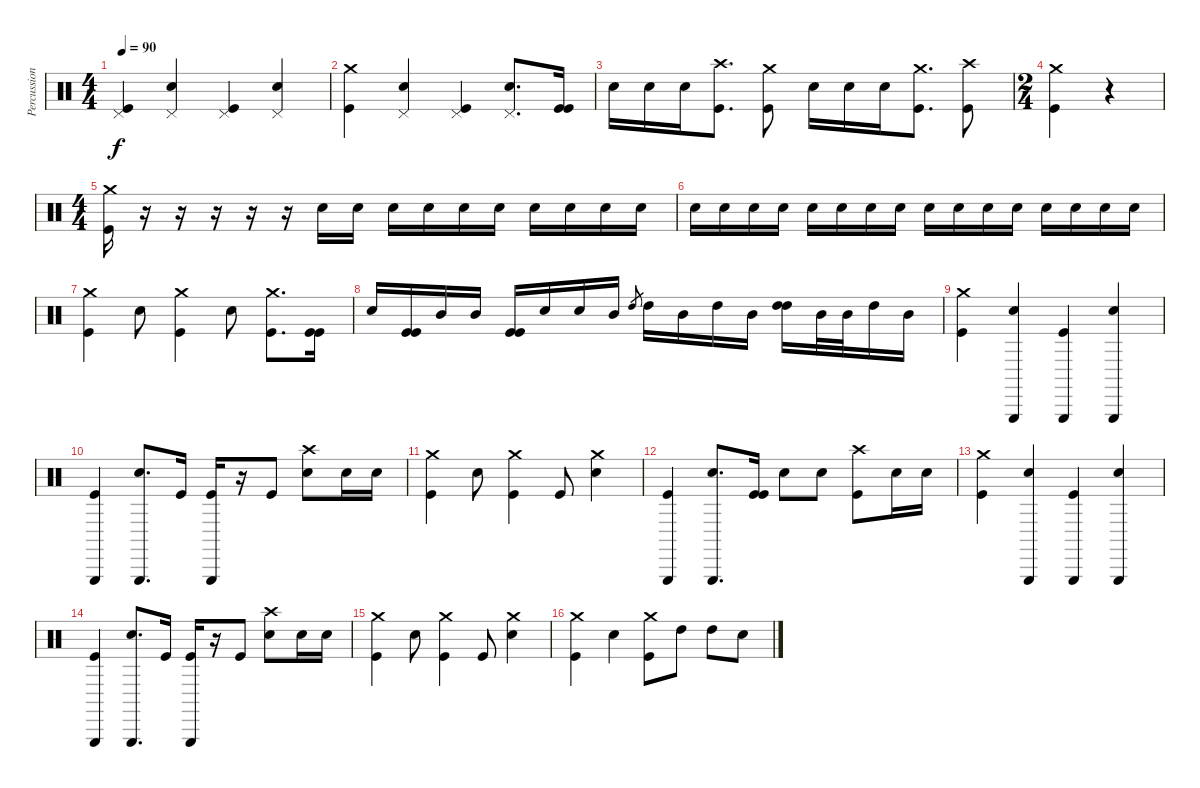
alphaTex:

\track ("Percussion" "Percussion") {instrument percussion}
\staff {score}
\articulation defaults
\ts (4 4)
\tempo 90
\clef neutral
\ks c
("Pedal Hi-Hat (hit)" "Kick (hit)").4{dy f} ("Pedal Hi-Hat (hit)" "Snare (hit) 2").4 ("Pedal Hi-Hat (hit)" "Kick (hit)").4 ("Pedal Hi-Hat (hit)" "Snare (hit) 2").4 |
("Crash medium (hit)" "Kick (hit)").4 ("Pedal Hi-Hat (hit)" "Snare (hit) 2").4 ("Pedal Hi-Hat (hit)" "Kick (hit)").4 ("Pedal Hi-Hat (hit)" "Snare (hit) 2").8{d} ("Kick (hit)" "Kick (hit)").16 |
"Snare (hit) 2".16 "Snare (hit) 2".16 "Snare (hit) 2".16 ("Crash high (hit)" "Kick (hit)").8{d} ("Crash medium (hit)" "Kick (hit)").8 "Snare (hit) 2".16 "Snare (hit) 2".16 "Snare (hit) 2".16 ("Crash medium (hit)" "Kick (hit)").8{d} ("Crash high (hit)" "Kick (hit)").8 |
\ts (2 4)
("Crash medium (hit)" "Kick (hit)").4 r.4 |
\ts (4 4)
("Crash medium (hit)" "Kick (hit)").16 r.16 r.16 r.16 r.16 r.16 "Snare (hit) 2".16{volume 4} "Snare (hit) 2".16{volume 4} "Snare (hit) 2".16{volume 5} "Snare (hit) 2".16{volume 5} "Snare (hit) 2".16{volume 6} "Snare (hit) 2".16{volume 6} "Snare (hit) 2".16{volume 7} "Snare (hit) 2".16{volume 7} "Snare (hit) 2".16{volume 8} "Snare (hit) 2".16{volume 8} |
"Snare (hit) 2".16{volume 9} "Snare (hit) 2".16{volume 9} "Snare (hit) 2".16{volume 10} "Snare (hit) 2".16{volume 10} "Snare (hit) 2".16{volume 11} "Snare (hit) 2".16{volume 11} "Snare (hit) 2".16{volume 12} "Snare (hit) 2".16{volume 12} "Snare (hit) 2".16{volume 13} "Snare (hit) 2".16{volume 13} "Snare (hit) 2".16{volume 14} "Snare (hit) 2".16{volume 14} "Snare (hit) 2".16{volume 15} "Snare (hit) 2".16{volume 15} "Snare (hit) 2".16{volume 16} "Snare (hit) 2".16 |
("Crash medium (hit)" "Kick (hit)").4 "Snare (hit) 2".8 ("Crash medium (hit)" "Kick (hit)").4 "Snare (hit) 2".8 ("Crash medium (hit)" "Kick (hit)").8{d} ("Kick (hit)" "Kick (hit)").16 |
"Snare (hit) 2".16 ("Kick (hit)" "Kick (hit)").16 "Mid Tom (hit)".16 "Mid Tom (hit)".16 ("Kick (hit)" "Kick (hit)").16 "Snare (hit) 2".16 "Snare (hit) 2".16 "Mid Tom (hit)".16 "High Tom (hit)".8{gr} "High Tom (hit)".16 "Mid Tom (hit)".16 "High Tom (hit)".16 "Mid Tom (hit)".16 ("High Tom (hit)" "High Tom (hit)").16 "Mid Tom (hit)".32 "Mid Tom (hit)".32 "High Tom (hit)".16 "Mid Tom (hit)".16 |
("Crash medium (hit)" "Kick (hit)").4 ("Triangle (hit)" "Snare (hit) 2").4 ("Triangle (hit)" "Kick (hit)").4 ("Triangle (hit)" "Snare (hit) 2").4 |
("Triangle (hit)" "Kick (hit)").4 ("Triangle (hit)" "Snare (hit) 2").8{d} "Kick (hit)".16 ("Triangle (hit)" "Kick (hit)").16 r.16 "Kick (hit)".8 ("Crash high (hit)" "Snare (hit) 2").8 "Snare (hit) 2".16 "Snare (hit) 2".16 |
("Crash medium (hit)" "Kick (hit)").4 "Snare (hit) 2".8 ("Crash medium (hit)" "Kick (hit)").4 "Kick (hit)".8 ("Crash medium (hit)" "Snare (hit) 2").4 |
("Triangle (hit)" "Kick (hit)").4 ("Triangle (hit)" "Snare (hit) 2").8{d} ("Kick (hit)" "Kick (hit)").16 "Snare (hit) 2".8 "Snare (hit) 2".8 ("Crash high (hit)" "Kick (hit)").8 "Snare (hit) 2".16 "Snare (hit) 2".16 |
("Crash medium (hit)" "Kick (hit)").4 ("Triangle (hit)" "Snare (hit) 2").4 ("Triangle (hit)" "Kick (hit)").4 ("Triangle (hit)" "Snare (hit) 2").4 |
("Triangle (hit)" "Kick (hit)").4 ("Triangle (hit)" "Snare (hit) 2").8{d} "Kick (hit)".16 ("Triangle (hit)" "Kick (hit)").16 r.16 "Kick (hit)".8 ("Crash high (hit)" "Snare (hit) 2").8 "Snare (hit) 2".16 "Snare (hit) 2".16 |
("Crash medium (hit)" "Kick (hit)").4 "Snare (hit) 2".8 ("Crash medium (hit)" "Kick (hit)").4 "Kick (hit)".8 ("Crash medium (hit)" "Snare (hit) 2").4 |
("Crash medium (hit)" "Kick (hit)").4 "Snare (hit) 2".4 ("Crash medium (hit)" "Kick (hit)").8 "High Tom (hit)".8 "High Tom (hit)".8 "Snare (hit) 2".8
